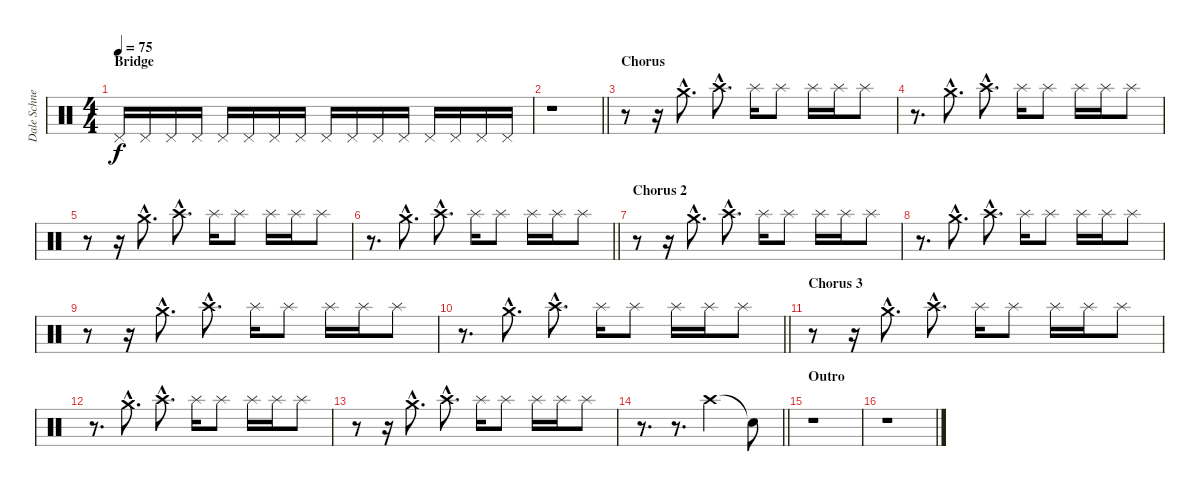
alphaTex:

\track ("Dale Schnettler (Drums)" "Dale Schne") {instrument percussion}
\staff {score}
\articulation defaults
\ts (4 4)
\section ("" "Bridge")
\tempo 75
\clef neutral
\ks c "Pedal Hi-Hat (hit)".16{dy f} "Pedal Hi-Hat (hit)".16 "Pedal Hi-Hat (hit)".16 "Pedal Hi-Hat (hit)".16 "Pedal Hi-Hat (hit)".16 "Pedal Hi-Hat (hit)".16 "Pedal Hi-Hat (hit)".16 "Pedal Hi-Hat (hit)".16 "Pedal Hi-Hat (hit)".16 "Pedal Hi-Hat (hit)".16 "Pedal Hi-Hat (hit)".16 "Pedal Hi-Hat (hit)".16 "Pedal Hi-Hat (hit)".16 "Pedal Hi-Hat (hit)".16 "Pedal Hi-Hat (hit)".16 "Pedal Hi-Hat (hit)".16
|
\barLineRight lightlight
r.1 |
\section ("" "Chorus")
r.8 r.16 "Crash medium (hit)"{hac}.8{d} "Crash high (hit)"{hac}.8{d} "Splash (hit)".16 "Splash (hit)".8 "Splash (hit)".16 "Splash (hit)".16 "Splash (hit)".8 |
r.8{d} "Crash medium (hit)"{hac}.8{d} "Crash high (hit)"{hac}.8{d} "Splash (hit)".16 "Splash (hit)".8 "Splash (hit)".16 "Splash (hit)".16 "Splash (hit)".8 |
r.8 r.16 "Crash medium (hit)"{hac}.8{d} "Crash high (hit)"{hac}.8{d} "Splash (hit)".16 "Splash (hit)".8 "Splash (hit)".16 "Splash (hit)".16 "Splash (hit)".8 |
\barLineRight lightlight
r.8{d} "Crash medium (hit)"{hac}.8{d} "Crash high (hit)"{hac}.8{d} "Splash (hit)".16 "Splash (hit)".8 "Splash (hit)".16 "Splash (hit)".16 "Splash (hit)".8 |
\section ("" "Chorus 2")
r.8 r.16 "Crash medium (hit)"{hac}.8{d} "Crash high (hit)"{hac}.8{d} "Splash (hit)".16 "Splash (hit)".8 "Splash (hit)".16 "Splash (hit)".16 "Splash (hit)".8 |
r.8{d} "Crash medium (hit)"{hac}.8{d} "Crash high (hit)"{hac}.8{d} "Splash (hit)".16 "Splash (hit)".8 "Splash (hit)".16 "Splash (hit)".16 "Splash (hit)".8 |
r.8 r.16 "Crash medium (hit)"{hac}.8{d} "Crash high (hit)"{hac}.8{d} "Splash (hit)".16 "Splash (hit)".8 "Splash (hit)".16 "Splash (hit)".16 "Splash (hit)".8 |
\barLineRight lightlight
r.8{d} "Crash medium (hit)"{hac}.8{d} "Crash high (hit)"{hac}.8{d} "Splash (hit)".16 "Splash (hit)".8 "Splash (hit)".16 "Splash (hit)".16 "Splash (hit)".8 |
\section ("" "Chorus 3")
r.8 r.16 "Crash medium (hit)"{hac}.8{d} "Crash high (hit)"{hac}.8{d} "Splash (hit)".16 "Splash (hit)".8 "Splash (hit)".16 "Splash (hit)".16 "Splash (hit)".8 |
r.8{d} "Crash medium (hit)"{hac}.8{d} "Crash high (hit)"{hac}.8{d} "Splash (hit)".16 "Splash (hit)".8 "Splash (hit)".16 "Splash (hit)".16 "Splash (hit)".8 |
r.8 r.16 "Crash medium (hit)"{hac}.8{d} "Crash high (hit)"{hac}.8{d} "Splash (hit)".16 "Splash (hit)".8 "Splash (hit)".16 "Splash (hit)".16 "Splash (hit)".8 |
\barLineRight lightlight
r.8{d} r.8{d} "Crash high (hit)".2 "Snare (hit)"{t}.8 |
\section ("" "Outro")
r.1 |
r.1
